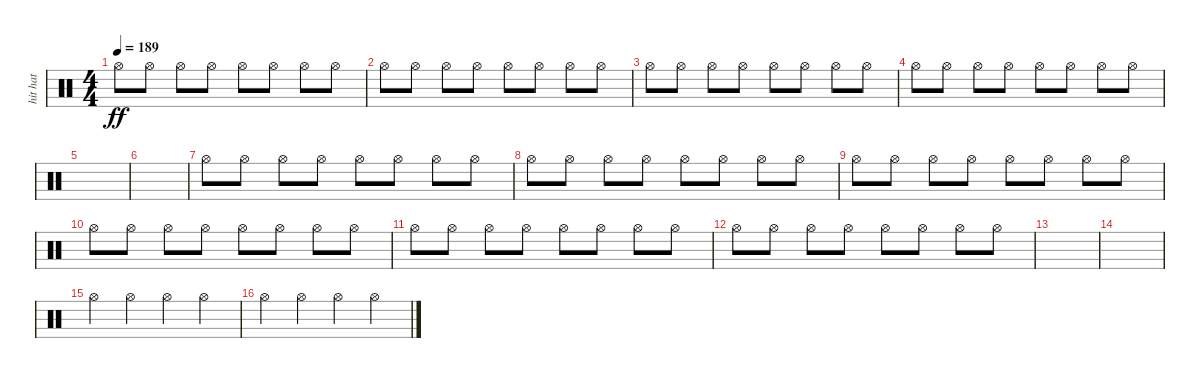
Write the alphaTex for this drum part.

\track ("hit hat" "hit hat") {instrument percussion}
\staff {score}
\articulation defaults
\ts (4 4)
\tempo 189
\clef neutral
\ks c "Hi-Hat (open)".8{dy ff} "Hi-Hat (open)".8 "Hi-Hat (open)".8 "Hi-Hat (open)".8 "Hi-Hat (open)".8 "Hi-Hat (open)".8 "Hi-Hat (open)".8 "Hi-Hat (open)".8
|
"Hi-Hat (open)".8 "Hi-Hat (open)".8 "Hi-Hat (open)".8 "Hi-Hat (open)".8 "Hi-Hat (open)".8 "Hi-Hat (open)".8 "Hi-Hat (open)".8 "Hi-Hat (open)".8 |
"Hi-Hat (open)".8 "Hi-Hat (open)".8 "Hi-Hat (open)".8 "Hi-Hat (open)".8 "Hi-Hat (open)".8 "Hi-Hat (open)".8 "Hi-Hat (open)".8 "Hi-Hat (open)".8 |
"Hi-Hat (open)".8 "Hi-Hat (open)".8 "Hi-Hat (open)".8 "Hi-Hat (open)".8 "Hi-Hat (open)".8 "Hi-Hat (open)".8 "Hi-Hat (open)".8 "Hi-Hat (open)".8 |
|
|
"Hi-Hat (open)".8 "Hi-Hat (open)".8 "Hi-Hat (open)".8 "Hi-Hat (open)".8 "Hi-Hat (open)".8 "Hi-Hat (open)".8 "Hi-Hat (open)".8 "Hi-Hat (open)".8 |
"Hi-Hat (open)".8 "Hi-Hat (open)".8 "Hi-Hat (open)".8 "Hi-Hat (open)".8 "Hi-Hat (open)".8 "Hi-Hat (open)".8 "Hi-Hat (open)".8 "Hi-Hat (open)".8 |
"Hi-Hat (open)".8 "Hi-Hat (open)".8 "Hi-Hat (open)".8 "Hi-Hat (open)".8 "Hi-Hat (open)".8 "Hi-Hat (open)".8 "Hi-Hat (open)".8 "Hi-Hat (open)".8 |
"Hi-Hat (open)".8 "Hi-Hat (open)".8 "Hi-Hat (open)".8 "Hi-Hat (open)".8 "Hi-Hat (open)".8 "Hi-Hat (open)".8 "Hi-Hat (open)".8 "Hi-Hat (open)".8 |
"Hi-Hat (open)".8 "Hi-Hat (open)".8 "Hi-Hat (open)".8 "Hi-Hat (open)".8 "Hi-Hat (open)".8 "Hi-Hat (open)".8 "Hi-Hat (open)".8 "Hi-Hat (open)".8 |
"Hi-Hat (open)".8 "Hi-Hat (open)".8 "Hi-Hat (open)".8 "Hi-Hat (open)".8 "Hi-Hat (open)".8 "Hi-Hat (open)".8 "Hi-Hat (open)".8 "Hi-Hat (open)".8 |
|
|
"Hi-Hat (open)".4 "Hi-Hat (open)".4 "Hi-Hat (open)".4 "Hi-Hat (open)".4 |
"Hi-Hat (open)".4 "Hi-Hat (open)".4 "Hi-Hat (open)".4 "Hi-Hat (open)".4
